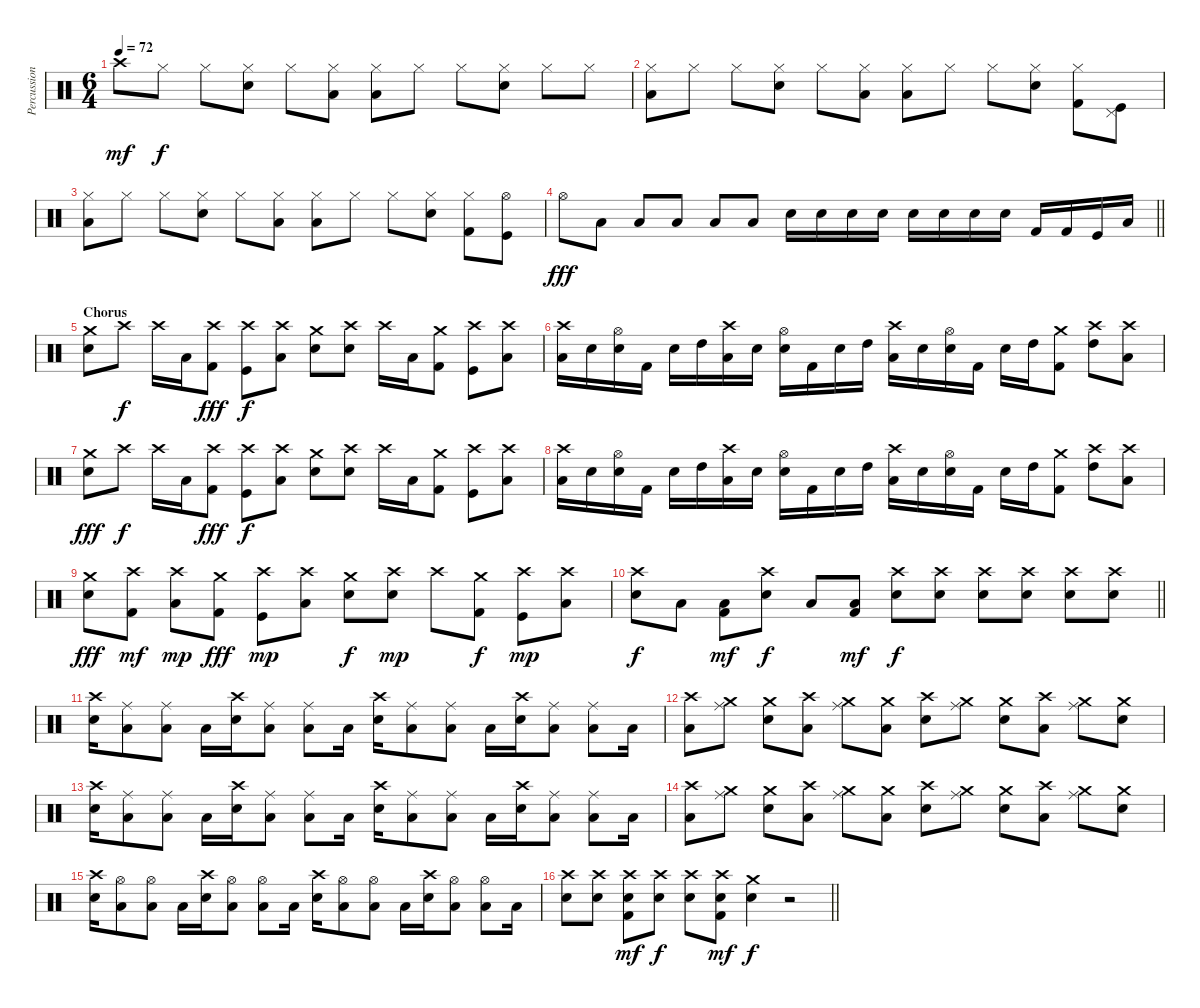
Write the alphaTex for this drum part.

\track ("Percussion" "Percussion") {instrument percussion}
\staff {score}
\articulation defaults
\ts (6 4)
\tempo 72
\clef neutral
\ks c "Crash high (hit)".8{dy mf} "Hi-Hat (closed)".8{dy f} "Hi-Hat (closed)".8
("Hi-Hat (closed)" "Snare (hit) 2").8 "Hi-Hat (closed)".8 ("Hi-Hat (closed)" "Low Floor Tom (hit)").8 ("Hi-Hat (closed)" "Low Floor Tom (hit)").8 "Hi-Hat (closed)".8 "Hi-Hat (closed)".8 ("Hi-Hat (closed)" "Snare (hit) 2").8 "Hi-Hat (closed)".8 "Hi-Hat (closed)".8 |
("Hi-Hat (closed)" "Low Floor Tom (hit)").8 "Hi-Hat (closed)".8 "Hi-Hat (closed)".8 ("Hi-Hat (closed)" "Snare (hit) 2").8 "Hi-Hat (closed)".8 ("Hi-Hat (closed)" "Low Floor Tom (hit)").8 ("Hi-Hat (closed)" "Low Floor Tom (hit)").8 "Hi-Hat (closed)".8 "Hi-Hat (closed)".8 ("Hi-Hat (closed)" "Snare (hit) 2").8 ("Hi-Hat (closed)" "Kick (hit) 2").8 ("Pedal Hi-Hat (hit)" "Kick (hit)").8 |
("Hi-Hat (closed)" "Low Floor Tom (hit)").8 "Hi-Hat (closed)".8 "Hi-Hat (closed)".8 ("Hi-Hat (closed)" "Snare (hit) 2").8 "Hi-Hat (closed)".8 ("Hi-Hat (closed)" "Low Floor Tom (hit)").8 ("Hi-Hat (closed)" "Low Floor Tom (hit)").8 "Hi-Hat (closed)".8 "Hi-Hat (closed)".8 ("Hi-Hat (closed)" "Snare (hit) 2").8 ("Hi-Hat (closed)" "Kick (hit) 2").8 ("Hi-Hat (open)" "Kick (hit)").8 |
\barLineRight lightlight "Hi-Hat (open)".8{dy fff} "Low Floor Tom (hit)".8 "Low Floor Tom (hit)".8 "Low Floor Tom (hit)".8 "Low Floor Tom (hit)".8 "Low Floor Tom (hit)".8 "Electric Snare (hit)".16 "Electric Snare (hit)".16 "Electric Snare (hit)".16 "Snare (hit) 2".16 "Snare (hit) 2".16 "Snare (hit) 2".16 "Snare (hit) 2".16 "Snare (hit) 2".16 "Kick (hit) 2".16 "Kick (hit) 2".16 "Kick (hit)".16 "Low Tom (hit)".16
|
\section ("" "Chorus")
("Crash medium (hit)" "Snare (hit) 2").8 "Crash high (hit)".8{dy f} "Crash high (hit)".16 "Low Tom (hit)".16 ("Crash high (hit)" "Kick (hit) 2").8{dy fff} ("Crash high (hit)" "Kick (hit)").8{dy f} ("Crash high (hit)" "Low Tom (hit)").8 ("Crash medium (hit)" "Snare (hit) 2").8 ("Crash high (hit)" "Snare (hit) 2").8 "Crash high (hit)".16 "Low Tom (hit)".16 ("Crash medium (hit)" "Kick (hit) 2").8 ("Crash high (hit)" "Kick (hit)").8 ("Crash high (hit)" "Low Tom (hit)").8 |
("Crash high (hit)" "Low Tom (hit)").16 "Snare (hit) 2".16 ("Hi-Hat (open)" "Electric Snare (hit)").16 "Kick (hit) 2".16 "Snare (hit) 2".16 "High Tom (hit)".16 ("Crash high (hit)" "Low Tom (hit)").16 "Snare (hit) 2".16 ("Hi-Hat (open)" "Electric Snare (hit)").16 "Kick (hit) 2".16 "Snare (hit) 2".16 "High Tom (hit)".16 ("Crash high (hit)" "Low Tom (hit)").16 "Snare (hit) 2".16 ("Hi-Hat (open)" "Electric Snare (hit)").16 "Kick (hit) 2".16 "Snare (hit) 2".16 "High Tom (hit)".16 ("Crash medium (hit)" "Kick (hit) 2").8 ("Crash high (hit)" "High Tom (hit)").8 ("Crash high (hit)" "Low Tom (hit)").8 |
("Crash medium (hit)" "Snare (hit) 2").8{dy fff} "Crash high (hit)".8{dy f} "Crash high (hit)".16 "Low Tom (hit)".16 ("Crash high (hit)" "Kick (hit) 2").8{dy fff} ("Crash high (hit)" "Kick (hit)").8{dy f} ("Crash high (hit)" "Low Tom (hit)").8 ("Crash medium (hit)" "Snare (hit) 2").8 ("Crash high (hit)" "Snare (hit) 2").8 "Crash high (hit)".16 "Low Tom (hit)".16 ("Crash medium (hit)" "Kick (hit) 2").8 ("Crash high (hit)" "Kick (hit)").8 ("Crash high (hit)" "Low Tom (hit)").8 |
("Crash high (hit)" "Low Tom (hit)").16 "Snare (hit) 2".16 ("Hi-Hat (open)" "Electric Snare (hit)").16 "Kick (hit) 2".16 "Snare (hit) 2".16 "High Tom (hit)".16 ("Crash high (hit)" "Low Tom (hit)").16 "Snare (hit) 2".16 ("Hi-Hat (open)" "Electric Snare (hit)").16 "Kick (hit) 2".16 "Snare (hit) 2".16 "High Tom (hit)".16 ("Crash high (hit)" "Low Tom (hit)").16 "Snare (hit) 2".16 ("Hi-Hat (open)" "Electric Snare (hit)").16 "Kick (hit) 2".16 "Snare (hit) 2".16 "High Tom (hit)".16 ("Crash medium (hit)" "Kick (hit) 2").8 ("Crash high (hit)" "High Tom (hit)").8 ("Crash high (hit)" "Low Tom (hit)").8 |
("Crash medium (hit)" "Snare (hit) 2").8{dy fff} ("Crash high (hit)" "Kick (hit) 2").8{dy mf} ("Crash high (hit)" "Low Tom (hit)").8{dy mp} ("Crash medium (hit)" "Kick (hit) 2").8{dy fff} ("Crash high (hit)" "Kick (hit)").8{dy mp} ("Crash high (hit)" "Low Tom (hit)").8 ("Crash medium (hit)" "Snare (hit) 2").8{dy f} ("Crash high (hit)" "Snare (hit) 2").8{dy mp} "Crash high (hit)".8 ("Crash medium (hit)" "Kick (hit) 2").8{dy f} ("Crash high (hit)" "Kick (hit)").8{dy mp} ("Crash high (hit)" "Low Tom (hit)").8 |
\barLineRight lightlight
("Crash high (hit)" "Snare (hit) 2").8{dy f} "Low Tom (hit)".8 ("Low Tom (hit)" "Kick (hit) 2").8{dy mf} ("Crash high (hit)" "Snare (hit) 2").8{dy f} "Low Tom (hit)".8 ("Low Tom (hit)" "Kick (hit) 2").8{dy mf} ("Crash high (hit)" "Snare (hit) 2").8{dy f} ("Crash high (hit)" "Snare (hit) 2").8 ("Crash high (hit)" "Snare (hit) 2").8 ("Crash high (hit)" "Snare (hit) 2").8 ("Crash high (hit)" "Snare (hit) 2").8 ("Crash high (hit)" "Snare (hit) 2").8 |
\section ("" "")
("Crash high (hit)" "Electric Snare (hit)").16 ("Ride (middle)" "Low Floor Tom (hit)").8 ("Ride (middle)" "Low Floor Tom (hit)").8 "Low Floor Tom (hit)".16 ("Crash high (hit)" "Electric Snare (hit)").16 ("Ride (middle)" "Low Floor Tom (hit)").8 ("Ride (middle)" "Low Floor Tom (hit)").8 "Low Floor Tom (hit)".16 ("Crash high (hit)" "Electric Snare (hit)").16 ("Ride (middle)" "Low Floor Tom (hit)").8 ("Ride (middle)" "Low Floor Tom (hit)").8 "Low Floor Tom (hit)".16 ("Crash high (hit)" "Electric Snare (hit)").16 ("Ride (middle)" "Low Floor Tom (hit)").8 ("Ride (middle)" "Low Floor Tom (hit)").8 "Low Floor Tom (hit)".16 |
("Crash high (hit)" "Low Floor Tom (hit)").8 ("Crash medium (hit)" "Ride (middle)").8 ("Crash medium (hit)" "Snare (hit) 2").8 ("Crash high (hit)" "Low Floor Tom (hit)").8 ("Crash medium (hit)" "Ride (middle)").8 ("Crash medium (hit)" "Low Floor Tom (hit)").8 ("Crash high (hit)" "Snare (hit) 2").8 ("Crash medium (hit)" "Ride (middle)").8 ("Crash medium (hit)" "Snare (hit) 2").8 ("Crash high (hit)" "Low Floor Tom (hit)").8 ("Crash medium (hit)" "Ride (middle)").8 ("Crash medium (hit)" "Snare (hit) 2").8 |
("Crash high (hit)" "Electric Snare (hit)").16 ("Ride (middle)" "Low Floor Tom (hit)").8 ("Ride (middle)" "Low Floor Tom (hit)").8 "Low Floor Tom (hit)".16 ("Crash high (hit)" "Electric Snare (hit)").16 ("Ride (middle)" "Low Floor Tom (hit)").8 ("Ride (middle)" "Low Floor Tom (hit)").8 "Low Floor Tom (hit)".16 ("Crash high (hit)" "Electric Snare (hit)").16 ("Ride (middle)" "Low Floor Tom (hit)").8 ("Ride (middle)" "Low Floor Tom (hit)").8 "Low Floor Tom (hit)".16 ("Crash high (hit)" "Electric Snare (hit)").16 ("Ride (middle)" "Low Floor Tom (hit)").8 ("Ride (middle)" "Low Floor Tom (hit)").8 "Low Floor Tom (hit)".16 |
("Crash high (hit)" "Low Floor Tom (hit)").8 ("Crash medium (hit)" "Ride (middle)").8 ("Crash medium (hit)" "Snare (hit) 2").8 ("Crash high (hit)" "Low Floor Tom (hit)").8 ("Crash medium (hit)" "Ride (middle)").8 ("Crash medium (hit)" "Low Floor Tom (hit)").8 ("Crash high (hit)" "Snare (hit) 2").8 ("Crash medium (hit)" "Ride (middle)").8 ("Crash medium (hit)" "Snare (hit) 2").8 ("Crash high (hit)" "Low Floor Tom (hit)").8 ("Crash medium (hit)" "Ride (middle)").8 ("Crash medium (hit)" "Snare (hit) 2").8 |
("Crash high (hit)" "Electric Snare (hit)").16 ("Hi-Hat (open)" "Low Floor Tom (hit)").8 ("Hi-Hat (open)" "Low Floor Tom (hit)").8 "Low Floor Tom (hit)".16 ("Crash high (hit)" "Electric Snare (hit)").16 ("Hi-Hat (open)" "Low Floor Tom (hit)").8 ("Hi-Hat (open)" "Low Floor Tom (hit)").8 "Low Floor Tom (hit)".16 ("Crash high (hit)" "Electric Snare (hit)").16 ("Hi-Hat (open)" "Low Floor Tom (hit)").8 ("Hi-Hat (open)" "Low Floor Tom (hit)").8 "Low Floor Tom (hit)".16 ("Crash high (hit)" "Electric Snare (hit)").16 ("Hi-Hat (open)" "Low Floor Tom (hit)").8 ("Hi-Hat (open)" "Low Floor Tom (hit)").8 "Low Floor Tom (hit)".16 |
\barLineRight lightlight
("Crash high (hit)" "Snare (hit) 2").8 ("Crash high (hit)" "Snare (hit) 2").8 ("Crash high (hit)" "Snare (hit) 2" "Kick (hit) 2").8{dy mf} ("Crash high (hit)" "Snare (hit) 2").8{dy f} ("Crash high (hit)" "Snare (hit) 2").8 ("Crash high (hit)" "Snare (hit) 2" "Kick (hit) 2").8{dy mf} ("Crash medium (hit)" "Snare (hit) 2").4{dy f} r.2
